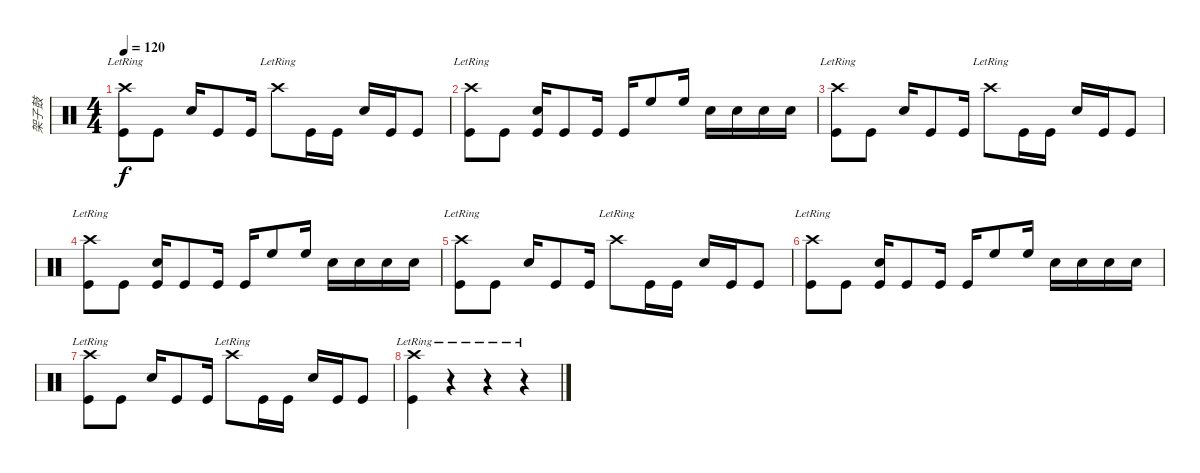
\track ("架子鼓" "架子鼓") {instrument percussion}
\staff {score}
\articulation defaults
\ts (4 4)
\tempo 120
\clef neutral
\ks c
("Crash high (hit)"{lr} "Kick (hit)").8{dy f} "Kick (hit)".8 "Snare (hit) 2".16 "Kick (hit)".8 "Kick (hit)".16 "Crash high (hit)"{lr}.8 "Kick (hit)".16 "Kick (hit)".16 "Snare (hit) 2".16 "Kick (hit)".16 "Kick (hit)".8 |
("Crash high (hit)"{lr} "Kick (hit)").8 "Kick (hit)".8 ("Snare (hit) 2" "Kick (hit)").16 "Kick (hit)".8 "Kick (hit)".16 "Kick (hit)".16 "High Floor Tom (hit)".8 "High Floor Tom (hit)".16 "Snare (hit) 2".16 "Snare (hit) 2".16 "Snare (hit) 2".16 "Snare (hit) 2".16 |
("Crash high (hit)"{lr} "Kick (hit)").8 "Kick (hit)".8 "Snare (hit) 2".16 "Kick (hit)".8 "Kick (hit)".16 "Crash high (hit)"{lr}.8 "Kick (hit)".16 "Kick (hit)".16 "Snare (hit) 2".16 "Kick (hit)".16 "Kick (hit)".8 |
("Crash high (hit)"{lr} "Kick (hit)").8 "Kick (hit)".8 ("Snare (hit) 2" "Kick (hit)").16 "Kick (hit)".8 "Kick (hit)".16 "Kick (hit)".16 "High Floor Tom (hit)".8 "High Floor Tom (hit)".16 "Snare (hit) 2".16 "Snare (hit) 2".16 "Snare (hit) 2".16 "Snare (hit) 2".16 |
("Crash high (hit)"{lr} "Kick (hit)").8 "Kick (hit)".8 "Snare (hit) 2".16 "Kick (hit)".8 "Kick (hit)".16 "Crash high (hit)"{lr}.8 "Kick (hit)".16 "Kick (hit)".16 "Snare (hit) 2".16 "Kick (hit)".16 "Kick (hit)".8 |
("Crash high (hit)"{lr} "Kick (hit)").8 "Kick (hit)".8 ("Snare (hit) 2" "Kick (hit)").16 "Kick (hit)".8 "Kick (hit)".16 "Kick (hit)".16 "High Floor Tom (hit)".8 "High Floor Tom (hit)".16 "Snare (hit) 2".16 "Snare (hit) 2".16 "Snare (hit) 2".16 "Snare (hit) 2".16 |
("Crash high (hit)"{lr} "Kick (hit)").8 "Kick (hit)".8 "Snare (hit) 2".16 "Kick (hit)".8 "Kick (hit)".16 "Crash high (hit)"{lr}.8 "Kick (hit)".16 "Kick (hit)".16 "Snare (hit) 2".16 "Kick (hit)".16 "Kick (hit)".8 |
("Crash high (hit)"{lr} "Kick (hit)").4 r.4 r.4 r.4
